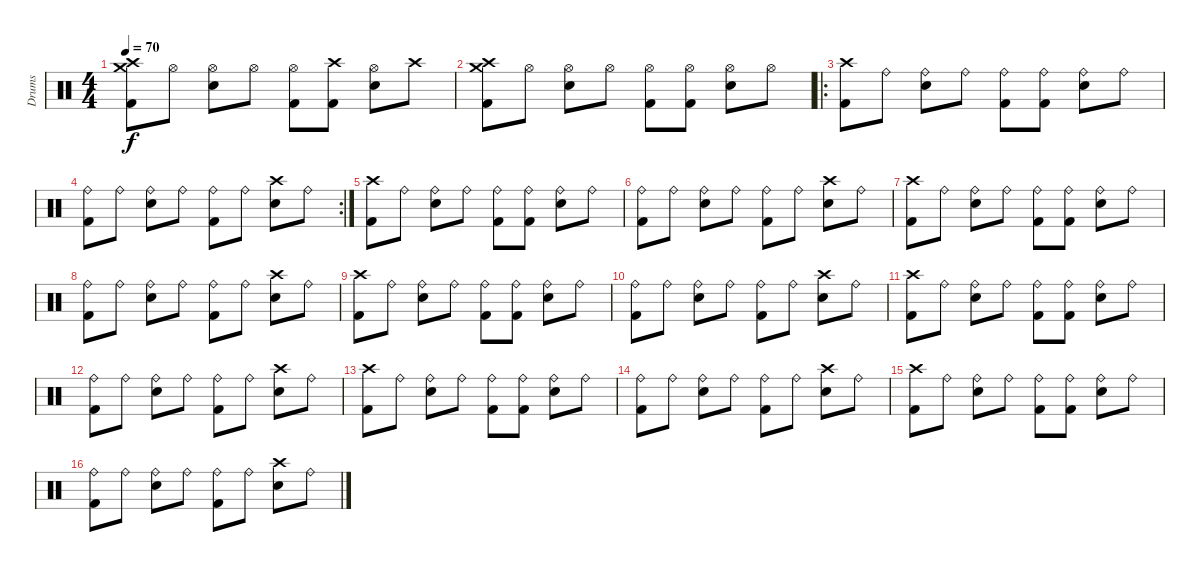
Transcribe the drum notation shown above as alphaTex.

\track ("Drums" "Drums") {instrument percussion}
\staff {score}
\articulation defaults
\ts (4 4)
\tempo 70
\clef neutral
\ks c
("Crash high (hit)" "Crash medium (hit)" "Kick (hit) 2").8{dy f} "Hi-Hat (open)".8 ("Hi-Hat (open)" "Electric Snare (hit)").8 "Hi-Hat (open)".8 ("Hi-Hat (open)" "Kick (hit) 2").8 ("Crash high (hit)" "Kick (hit) 2").8 ("Hi-Hat (open)" "Electric Snare (hit)").8 "Crash high (hit)".8 |
("Crash high (hit)" "Crash medium (hit)" "Kick (hit) 2").8 "Hi-Hat (open)".8 ("Hi-Hat (open)" "Electric Snare (hit)").8 "Hi-Hat (open)".8 ("Hi-Hat (open)" "Kick (hit) 2").8 ("Hi-Hat (open)" "Kick (hit) 2").8 ("Hi-Hat (open)" "Electric Snare (hit)").8 "Hi-Hat (open)".8 |
\ro
("Crash high (hit)" "Kick (hit) 2").8 "Ride (bell)".8 ("Ride (bell)" "Electric Snare (hit)").8 "Ride (bell)".8 ("Ride (bell)" "Kick (hit) 2").8 ("Ride (bell)" "Kick (hit) 2").8 ("Ride (bell)" "Electric Snare (hit)").8 "Ride (bell)".8 |
\rc 2
("Ride (bell)" "Kick (hit) 2").8 "Ride (bell)".8 ("Ride (bell)" "Electric Snare (hit)").8 "Ride (bell)".8 ("Ride (bell)" "Kick (hit) 2").8 "Ride (bell)".8 ("Crash high (hit)" "Electric Snare (hit)").8 "Ride (bell)".8 |
("Crash high (hit)" "Kick (hit) 2").8 "Ride (bell)".8 ("Ride (bell)" "Electric Snare (hit)").8 "Ride (bell)".8 ("Ride (bell)" "Kick (hit) 2").8 ("Ride (bell)" "Kick (hit) 2").8 ("Ride (bell)" "Electric Snare (hit)").8 "Ride (bell)".8 |
("Ride (bell)" "Kick (hit) 2").8 "Ride (bell)".8 ("Ride (bell)" "Electric Snare (hit)").8 "Ride (bell)".8 ("Ride (bell)" "Kick (hit) 2").8 "Ride (bell)".8 ("Crash high (hit)" "Electric Snare (hit)").8 "Ride (bell)".8 |
("Crash high (hit)" "Kick (hit) 2").8 "Ride (bell)".8 ("Ride (bell)" "Electric Snare (hit)").8 "Ride (bell)".8 ("Ride (bell)" "Kick (hit) 2").8 ("Ride (bell)" "Kick (hit) 2").8 ("Ride (bell)" "Electric Snare (hit)").8 "Ride (bell)".8 |
("Ride (bell)" "Kick (hit) 2").8 "Ride (bell)".8 ("Ride (bell)" "Electric Snare (hit)").8 "Ride (bell)".8 ("Ride (bell)" "Kick (hit) 2").8 "Ride (bell)".8 ("Crash high (hit)" "Electric Snare (hit)").8 "Ride (bell)".8 |
("Crash high (hit)" "Kick (hit) 2").8 "Ride (bell)".8 ("Ride (bell)" "Electric Snare (hit)").8 "Ride (bell)".8 ("Ride (bell)" "Kick (hit) 2").8 ("Ride (bell)" "Kick (hit) 2").8 ("Ride (bell)" "Electric Snare (hit)").8 "Ride (bell)".8 |
("Ride (bell)" "Kick (hit) 2").8 "Ride (bell)".8 ("Ride (bell)" "Electric Snare (hit)").8 "Ride (bell)".8 ("Ride (bell)" "Kick (hit) 2").8 "Ride (bell)".8 ("Crash high (hit)" "Electric Snare (hit)").8 "Ride (bell)".8 |
("Crash high (hit)" "Kick (hit) 2").8 "Ride (bell)".8 ("Ride (bell)" "Electric Snare (hit)").8 "Ride (bell)".8 ("Ride (bell)" "Kick (hit) 2").8 ("Ride (bell)" "Kick (hit) 2").8 ("Ride (bell)" "Electric Snare (hit)").8 "Ride (bell)".8 |
("Ride (bell)" "Kick (hit) 2").8 "Ride (bell)".8 ("Ride (bell)" "Electric Snare (hit)").8 "Ride (bell)".8 ("Ride (bell)" "Kick (hit) 2").8 "Ride (bell)".8 ("Crash high (hit)" "Electric Snare (hit)").8 "Ride (bell)".8 |
("Crash high (hit)" "Kick (hit) 2").8 "Ride (bell)".8 ("Ride (bell)" "Electric Snare (hit)").8 "Ride (bell)".8 ("Ride (bell)" "Kick (hit) 2").8 ("Ride (bell)" "Kick (hit) 2").8 ("Ride (bell)" "Electric Snare (hit)").8 "Ride (bell)".8 |
("Ride (bell)" "Kick (hit) 2").8 "Ride (bell)".8 ("Ride (bell)" "Electric Snare (hit)").8 "Ride (bell)".8 ("Ride (bell)" "Kick (hit) 2").8 "Ride (bell)".8 ("Crash high (hit)" "Electric Snare (hit)").8 "Ride (bell)".8 |
("Crash high (hit)" "Kick (hit) 2").8 "Ride (bell)".8 ("Ride (bell)" "Electric Snare (hit)").8 "Ride (bell)".8 ("Ride (bell)" "Kick (hit) 2").8 ("Ride (bell)" "Kick (hit) 2").8 ("Ride (bell)" "Electric Snare (hit)").8 "Ride (bell)".8 |
("Ride (bell)" "Kick (hit) 2").8 "Ride (bell)".8 ("Ride (bell)" "Electric Snare (hit)").8 "Ride (bell)".8 ("Ride (bell)" "Kick (hit) 2").8 "Ride (bell)".8 ("Crash high (hit)" "Electric Snare (hit)").8 "Ride (bell)".8
